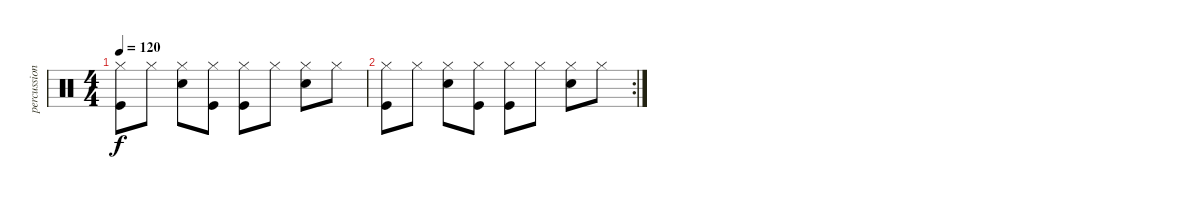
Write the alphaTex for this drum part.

\track ("percussion" "percussion") {instrument percussion}
\staff {score}
\articulation defaults
\ts (4 4)
\tempo 120
\clef neutral
\ks c
("Hi-Hat (closed)" "Kick (hit)").8{dy f} "Hi-Hat (closed)".8 ("Hi-Hat (closed)" "Electric Snare (hit)").8 ("Hi-Hat (closed)" "Kick (hit)").8 ("Hi-Hat (closed)" "Kick (hit)").8 "Hi-Hat (closed)".8 ("Hi-Hat (closed)" "Electric Snare (hit)").8 "Hi-Hat (closed)".8 |
\rc 2
("Hi-Hat (closed)" "Kick (hit)").8 "Hi-Hat (closed)".8 ("Hi-Hat (closed)" "Electric Snare (hit)").8 ("Hi-Hat (closed)" "Kick (hit)").8 ("Hi-Hat (closed)" "Kick (hit)").8 "Hi-Hat (closed)".8 ("Hi-Hat (closed)" "Electric Snare (hit)").8 "Hi-Hat (closed)".8
